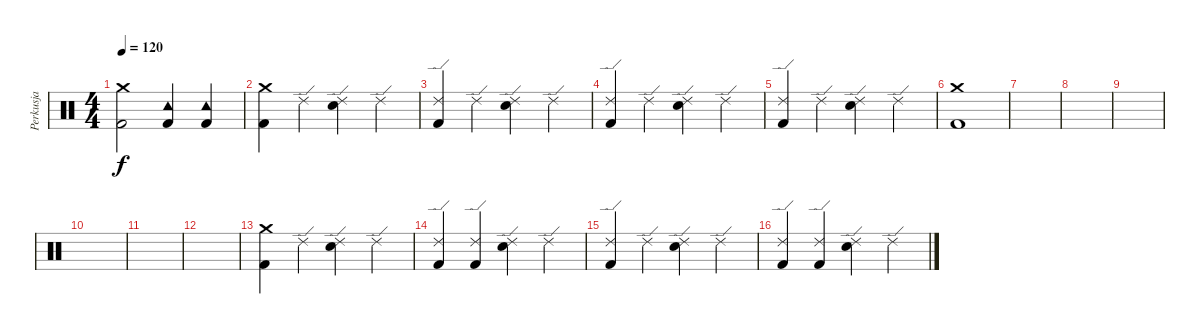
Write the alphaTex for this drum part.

\track ("Perkusja" "Perkusja") {instrument percussion}
\staff {score}
\articulation defaults
\ts (4 4)
\tempo 120
\clef neutral
\ks c
("Crash medium (hit)" "Kick (hit) 2").2{dy f} ("Tambourine (hit)" "Kick (hit) 2").4 ("Tambourine (hit)" "Kick (hit) 2").4 |
("Crash medium (hit)" "Kick (hit) 2").4 "Ride (edge) 2".4 ("Ride (edge) 2" "Snare (hit) 2").4 "Ride (edge) 2".4 |
("Ride (edge) 2" "Kick (hit) 2").4 "Ride (edge) 2".4 ("Ride (edge) 2" "Snare (hit) 2").4 "Ride (edge) 2".4 |
("Ride (edge) 2" "Kick (hit) 2").4 "Ride (edge) 2".4 ("Ride (edge) 2" "Snare (hit) 2").4 "Ride (edge) 2".4 |
("Ride (edge) 2" "Kick (hit) 2").4 "Ride (edge) 2".4 ("Ride (edge) 2" "Snare (hit) 2").4 "Ride (edge) 2".4 |
("Crash medium (hit)" "Kick (hit) 2").1 |
|
|
|
|
|
|
("Crash medium (hit)" "Kick (hit) 2").4 "Ride (edge) 2".4 ("Ride (edge) 2" "Snare (hit) 2").4 "Ride (edge) 2".4 |
("Ride (edge) 2" "Kick (hit) 2").4 ("Ride (edge) 2" "Kick (hit) 2").4 ("Ride (edge) 2" "Snare (hit) 2").4 "Ride (edge) 2".4 |
("Ride (edge) 2" "Kick (hit) 2").4 "Ride (edge) 2".4 ("Ride (edge) 2" "Snare (hit) 2").4 "Ride (edge) 2".4 |
("Ride (edge) 2" "Kick (hit) 2").4 ("Ride (edge) 2" "Kick (hit) 2").4 ("Ride (edge) 2" "Snare (hit) 2").4 "Ride (edge) 2".4
